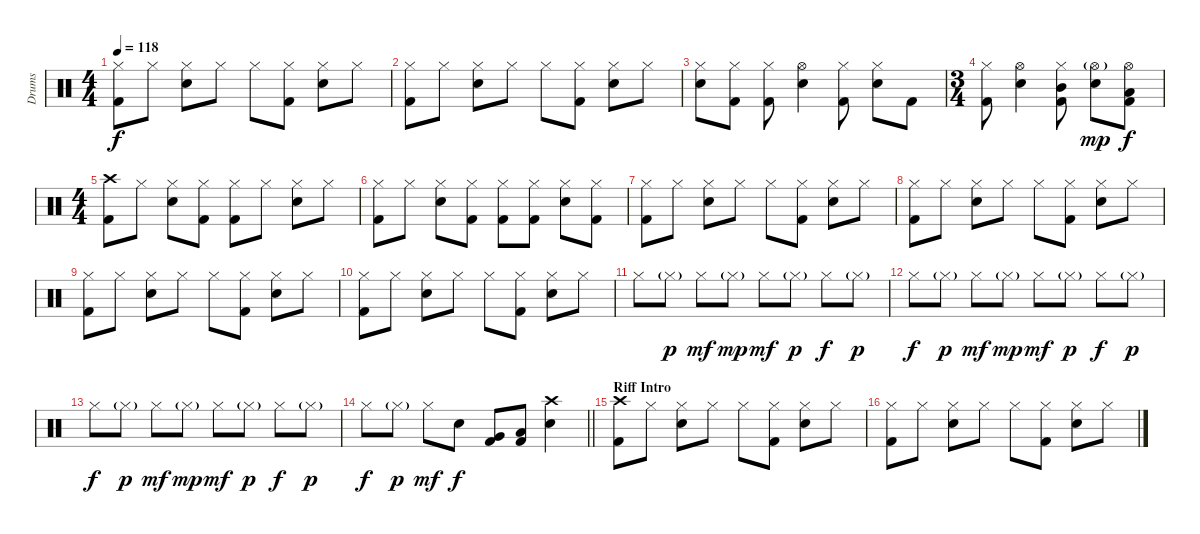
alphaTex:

\track ("Drums" "Drums") {instrument percussion}
\staff {score}
\articulation defaults
\ts (4 4)
\tempo 118
\clef neutral
\ks c
("Hi-Hat (closed)" "Kick (hit) 2").8{dy f} "Hi-Hat (closed)".8 ("Hi-Hat (closed)" "Electric Snare (hit)").8 "Hi-Hat (closed)".8 "Hi-Hat (closed)".8 ("Hi-Hat (closed)" "Kick (hit) 2").8 ("Hi-Hat (closed)" "Electric Snare (hit)").8 "Hi-Hat (closed)".8 |
("Hi-Hat (closed)" "Kick (hit) 2").8 "Hi-Hat (closed)".8 ("Hi-Hat (closed)" "Electric Snare (hit)").8 "Hi-Hat (closed)".8 "Hi-Hat (closed)".8 ("Hi-Hat (closed)" "Kick (hit) 2").8 ("Hi-Hat (closed)" "Electric Snare (hit)").8 "Hi-Hat (closed)".8 |
("Hi-Hat (closed)" "Electric Snare (hit)").8 ("Hi-Hat (closed)" "Kick (hit) 2").8 ("Hi-Hat (closed)" "Kick (hit) 2").8 ("Hi-Hat (open)" "Electric Snare (hit)").4 ("Hi-Hat (closed)" "Kick (hit) 2").8 ("Hi-Hat (closed)" "Electric Snare (hit)").8 "Kick (hit) 2".8 |
\ts (3 4)
("Hi-Hat (closed)" "Kick (hit) 2").8 ("Hi-Hat (open)" "Electric Snare (hit)").4 ("Hi-Hat (closed)" "Mid Tom (hit)" "Kick (hit) 2").8 ("Hi-Hat (open)"{g} "Electric Snare (hit)").8{dy mp} ("Hi-Hat (open)" "Low Tom (hit)" "Kick (hit) 2").8{dy f} |
\ts (4 4)
("Crash high (hit)" "Kick (hit) 2").8 "Hi-Hat (closed)".8 ("Hi-Hat (closed)" "Electric Snare (hit)").8 ("Hi-Hat (closed)" "Kick (hit) 2").8 ("Hi-Hat (closed)" "Kick (hit) 2").8 "Hi-Hat (closed)".8 ("Hi-Hat (closed)" "Electric Snare (hit)").8 "Hi-Hat (closed)".8 |
("Hi-Hat (closed)" "Kick (hit) 2").8 "Hi-Hat (closed)".8 ("Hi-Hat (closed)" "Electric Snare (hit)").8 ("Hi-Hat (closed)" "Kick (hit) 2").8 ("Hi-Hat (closed)" "Kick (hit) 2").8 ("Hi-Hat (closed)" "Kick (hit) 2").8 ("Hi-Hat (closed)" "Electric Snare (hit)").8 ("Hi-Hat (closed)" "Kick (hit) 2").8 |
("Hi-Hat (closed)" "Kick (hit) 2").8 "Hi-Hat (closed)".8 ("Hi-Hat (closed)" "Electric Snare (hit)").8 "Hi-Hat (closed)".8 "Hi-Hat (closed)".8 ("Hi-Hat (closed)" "Kick (hit) 2").8 ("Hi-Hat (closed)" "Electric Snare (hit)").8 "Hi-Hat (closed)".8 |
("Hi-Hat (closed)" "Kick (hit) 2").8 "Hi-Hat (closed)".8 ("Hi-Hat (closed)" "Electric Snare (hit)").8 "Hi-Hat (closed)".8 "Hi-Hat (closed)".8 ("Hi-Hat (closed)" "Kick (hit) 2").8 ("Hi-Hat (closed)" "Electric Snare (hit)").8 "Hi-Hat (closed)".8 |
("Hi-Hat (closed)" "Kick (hit) 2").8 "Hi-Hat (closed)".8 ("Hi-Hat (closed)" "Electric Snare (hit)").8 "Hi-Hat (closed)".8 "Hi-Hat (closed)".8 ("Hi-Hat (closed)" "Kick (hit) 2").8 ("Hi-Hat (closed)" "Electric Snare (hit)").8 "Hi-Hat (closed)".8 |
("Hi-Hat (closed)" "Kick (hit) 2").8 "Hi-Hat (closed)".8 ("Hi-Hat (closed)" "Electric Snare (hit)").8 "Hi-Hat (closed)".8 "Hi-Hat (closed)".8 ("Hi-Hat (closed)" "Kick (hit) 2").8 ("Hi-Hat (closed)" "Electric Snare (hit)").8 "Hi-Hat (closed)".8 |
"Hi-Hat (closed)".8 "Hi-Hat (closed)"{g}.8{dy p} "Hi-Hat (closed)".8{dy mf} "Hi-Hat (closed)"{g}.8{dy mp} "Hi-Hat (closed)".8{dy mf} "Hi-Hat (closed)"{g}.8{dy p} "Hi-Hat (closed)".8{dy f} "Hi-Hat (closed)"{g}.8{dy p} |
"Hi-Hat (closed)".8{dy f} "Hi-Hat (closed)"{g}.8{dy p} "Hi-Hat (closed)".8{dy mf} "Hi-Hat (closed)"{g}.8{dy mp} "Hi-Hat (closed)".8{dy mf} "Hi-Hat (closed)"{g}.8{dy p} "Hi-Hat (closed)".8{dy f} "Hi-Hat (closed)"{g}.8{dy p} |
"Hi-Hat (closed)".8{dy f} "Hi-Hat (closed)"{g}.8{dy p} "Hi-Hat (closed)".8{dy mf} "Hi-Hat (closed)"{g}.8{dy mp} "Hi-Hat (closed)".8{dy mf} "Hi-Hat (closed)"{g}.8{dy p} "Hi-Hat (closed)".8{dy f} "Hi-Hat (closed)"{g}.8{dy p} |
\barLineRight lightlight "Hi-Hat (closed)".8{dy f} "Hi-Hat (closed)"{g}.8{dy p} "Hi-Hat (closed)".8{dy mf} "Electric Snare (hit)".8{dy f}
("Very Low Tom (hit)" "Kick (hit) 2").8 ("Low Floor Tom (hit)" "Kick (hit) 2").8 ("Crash high (hit)" "Electric Snare (hit)").4 |
\section ("" "Riff Intro")
("Crash high (hit)" "Kick (hit) 2").8 "Hi-Hat (closed)".8 ("Hi-Hat (closed)" "Electric Snare (hit)").8 "Hi-Hat (closed)".8 "Hi-Hat (closed)".8 ("Hi-Hat (closed)" "Kick (hit) 2").8 ("Hi-Hat (closed)" "Electric Snare (hit)").8 "Hi-Hat (closed)".8 |
("Hi-Hat (closed)" "Kick (hit) 2").8 "Hi-Hat (closed)".8 ("Hi-Hat (closed)" "Electric Snare (hit)").8 "Hi-Hat (closed)".8 "Hi-Hat (closed)".8 ("Hi-Hat (closed)" "Kick (hit) 2").8 ("Hi-Hat (closed)" "Electric Snare (hit)").8 "Hi-Hat (closed)".8
